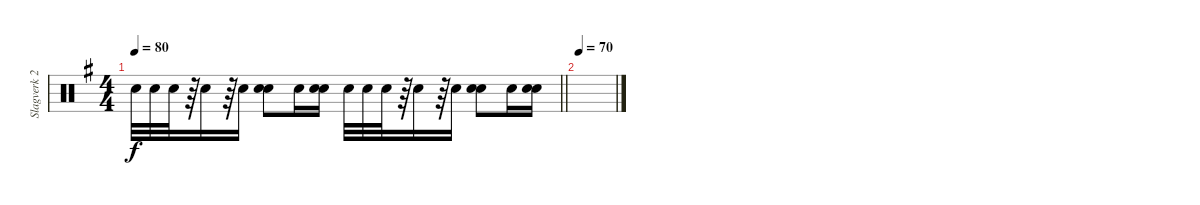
\track ("Slagverk 2" "Slagverk 2") {instrument percussion}
\staff {score}
\articulation defaults
\ts (4 4)
\tempo 80
\clef neutral
\barLineRight lightlight
\ks g "Snare (hit) 2".32{dy f} "Snare (hit) 2".32 "Snare (hit) 2".32
r.64 "Snare (hit) 2".16 r.64 "Snare (hit) 2".16 ("Snare (hit) 2" "Snare (hit) 2").8 "Snare (hit) 2".16 ("Snare (hit) 2" "Snare (hit) 2").16 "Snare (hit) 2".32 "Snare (hit) 2".32 "Snare (hit) 2".32 r.64 "Snare (hit) 2".16 r.64 "Snare (hit) 2".16 ("Snare (hit) 2" "Snare (hit) 2").8 "Snare (hit) 2".16 ("Snare (hit) 2" "Snare (hit) 2").16 |
\tempo 70
